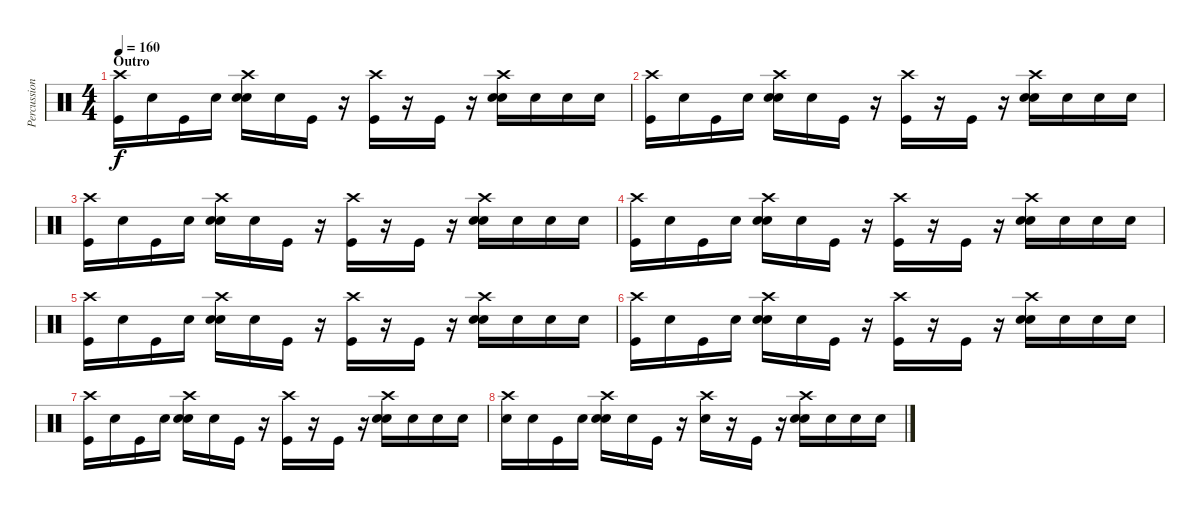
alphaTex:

\track ("Percussion" "Percussion") {instrument percussion}
\staff {score}
\articulation defaults
\ts (4 4)
\section ("" "Outro")
\tempo 160
\clef neutral
\ks c
("Kick (hit)" "Crash high (hit)").16{dy f} "Snare (hit)".16 "Kick (hit)".16 "Snare (hit)".16 ("Snare (hit)" "Electric Snare (hit)" "Crash high (hit)").16 "Snare (hit)".16 "Kick (hit)".16 r.16 ("Kick (hit)" "Crash high (hit)").16 r.16 "Kick (hit)".16 r.16 ("Snare (hit)" "Electric Snare (hit)" "Crash high (hit)").16 "Snare (hit)".16 "Snare (hit)".16 "Snare (hit)".16 |
("Kick (hit)" "Crash high (hit)").16 "Snare (hit)".16 "Kick (hit)".16 "Snare (hit)".16 ("Snare (hit)" "Electric Snare (hit)" "Crash high (hit)").16 "Snare (hit)".16 "Kick (hit)".16 r.16 ("Kick (hit)" "Crash high (hit)").16 r.16 "Kick (hit)".16 r.16 ("Snare (hit)" "Electric Snare (hit)" "Crash high (hit)").16 "Snare (hit)".16 "Snare (hit)".16 "Snare (hit)".16 |
("Kick (hit)" "Crash high (hit)").16 "Snare (hit)".16 "Kick (hit)".16 "Snare (hit)".16 ("Snare (hit)" "Electric Snare (hit)" "Crash high (hit)").16 "Snare (hit)".16 "Kick (hit)".16 r.16 ("Kick (hit)" "Crash high (hit)").16 r.16 "Kick (hit)".16 r.16 ("Snare (hit)" "Electric Snare (hit)" "Crash high (hit)").16 "Snare (hit)".16 "Snare (hit)".16 "Snare (hit)".16 |
("Kick (hit)" "Crash high (hit)").16 "Snare (hit)".16 "Kick (hit)".16 "Snare (hit)".16 ("Snare (hit)" "Electric Snare (hit)" "Crash high (hit)").16 "Snare (hit)".16 "Kick (hit)".16 r.16 ("Kick (hit)" "Crash high (hit)").16 r.16 "Kick (hit)".16 r.16 ("Snare (hit)" "Electric Snare (hit)" "Crash high (hit)").16 "Snare (hit)".16 "Snare (hit)".16 "Snare (hit)".16 |
("Kick (hit)" "Crash high (hit)").16 "Snare (hit)".16 "Kick (hit)".16 "Snare (hit)".16 ("Snare (hit)" "Electric Snare (hit)" "Crash high (hit)").16 "Snare (hit)".16 "Kick (hit)".16 r.16 ("Kick (hit)" "Crash high (hit)").16 r.16 "Kick (hit)".16 r.16 ("Snare (hit)" "Electric Snare (hit)" "Crash high (hit)").16 "Snare (hit)".16 "Snare (hit)".16 "Snare (hit)".16 |
("Kick (hit)" "Crash high (hit)").16 "Snare (hit)".16 "Kick (hit)".16 "Snare (hit)".16 ("Snare (hit)" "Electric Snare (hit)" "Crash high (hit)").16 "Snare (hit)".16 "Kick (hit)".16 r.16 ("Kick (hit)" "Crash high (hit)").16 r.16 "Kick (hit)".16 r.16 ("Snare (hit)" "Electric Snare (hit)" "Crash high (hit)").16 "Snare (hit)".16 "Snare (hit)".16 "Snare (hit)".16 |
("Kick (hit)" "Crash high (hit)").16 "Snare (hit)".16 "Kick (hit)".16 "Snare (hit)".16 ("Snare (hit)" "Electric Snare (hit)" "Crash high (hit)").16 "Snare (hit)".16 "Kick (hit)".16 r.16 ("Kick (hit)" "Crash high (hit)").16 r.16 "Kick (hit)".16 r.16 ("Snare (hit)" "Electric Snare (hit)" "Crash high (hit)").16 "Snare (hit)".16 "Snare (hit)".16 "Snare (hit)".16 |
("Electric Snare (hit)" "Crash high (hit)").16 "Snare (hit)".16 "Kick (hit)".16 "Snare (hit)".16 ("Snare (hit)" "Electric Snare (hit)" "Crash high (hit)").16 "Snare (hit)".16 "Kick (hit)".16 r.16 ("Electric Snare (hit)" "Crash high (hit)").16 r.16 "Kick (hit)".16 r.16 ("Snare (hit)" "Electric Snare (hit)" "Crash high (hit)").16 "Snare (hit)".16 "Snare (hit)".16 "Snare (hit)".16
